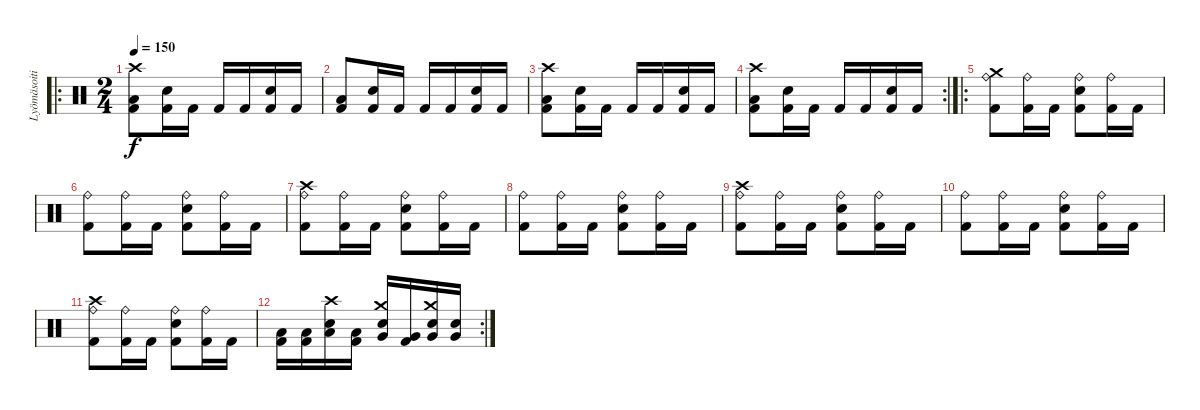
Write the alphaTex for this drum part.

\track ("Lyömäsoitin" "Lyömäsoiti") {instrument percussion}
\staff {score}
\articulation defaults
\ro
\ts (2 4)
\tempo 150
\clef neutral
\ks c
("Crash high (hit)" "Low Tom (hit)" "Kick (hit) 2").8{dy f} ("Electric Snare (hit)" "Kick (hit) 2").16 "Kick (hit) 2".16 "Kick (hit) 2".16 "Kick (hit) 2".16 ("Electric Snare (hit)" "Kick (hit) 2").16 "Kick (hit) 2".16 |
("Low Tom (hit)" "Kick (hit) 2").8 ("Electric Snare (hit)" "Kick (hit) 2").16 "Kick (hit) 2".16 "Kick (hit) 2".16 "Kick (hit) 2".16 ("Electric Snare (hit)" "Kick (hit) 2").16 "Kick (hit) 2".16 |
("Crash high (hit)" "Low Tom (hit)" "Kick (hit) 2").8 ("Electric Snare (hit)" "Kick (hit) 2").16 "Kick (hit) 2".16 "Kick (hit) 2".16 "Kick (hit) 2".16 ("Electric Snare (hit)" "Kick (hit) 2").16 "Kick (hit) 2".16 |
\rc 2
("Crash high (hit)" "Low Tom (hit)" "Kick (hit) 2").8 ("Electric Snare (hit)" "Kick (hit) 2").16 "Kick (hit) 2".16 "Kick (hit) 2".16 "Kick (hit) 2".16 ("Electric Snare (hit)" "Kick (hit) 2").16 "Kick (hit) 2".16 |
\ro
("Crash medium (hit)" "Ride (bell)" "Kick (hit) 2").8 ("Ride (bell)" "Kick (hit) 2").16 "Kick (hit) 2".16 ("Ride (bell)" "Electric Snare (hit)" "Kick (hit) 2").8 ("Ride (bell)" "Kick (hit) 2").16 "Kick (hit) 2".16 |
("Ride (bell)" "Kick (hit) 2").8 ("Ride (bell)" "Kick (hit) 2").16 "Kick (hit) 2".16 ("Ride (bell)" "Electric Snare (hit)" "Kick (hit) 2").8 ("Ride (bell)" "Kick (hit) 2").16 "Kick (hit) 2".16 |
("Crash high (hit)" "Ride (bell)" "Kick (hit) 2").8 ("Ride (bell)" "Kick (hit) 2").16 "Kick (hit) 2".16 ("Ride (bell)" "Electric Snare (hit)" "Kick (hit) 2").8 ("Ride (bell)" "Kick (hit) 2").16 "Kick (hit) 2".16 |
("Ride (bell)" "Kick (hit) 2").8 ("Ride (bell)" "Kick (hit) 2").16 "Kick (hit) 2".16 ("Ride (bell)" "Electric Snare (hit)" "Kick (hit) 2").8 ("Ride (bell)" "Kick (hit) 2").16 "Kick (hit) 2".16 |
("Crash high (hit)" "Ride (bell)" "Kick (hit) 2").8 ("Ride (bell)" "Kick (hit) 2").16 "Kick (hit) 2".16 ("Ride (bell)" "Electric Snare (hit)" "Kick (hit) 2").8 ("Ride (bell)" "Kick (hit) 2").16 "Kick (hit) 2".16 |
("Ride (bell)" "Kick (hit) 2").8 ("Ride (bell)" "Kick (hit) 2").16 "Kick (hit) 2".16 ("Ride (bell)" "Electric Snare (hit)" "Kick (hit) 2").8 ("Ride (bell)" "Kick (hit) 2").16 "Kick (hit) 2".16 |
("Crash high (hit)" "Ride (bell)" "Kick (hit) 2").8 ("Ride (bell)" "Kick (hit) 2").16 "Kick (hit) 2".16 ("Ride (bell)" "Electric Snare (hit)" "Kick (hit) 2").8 ("Ride (bell)" "Kick (hit) 2").16 "Kick (hit) 2".16 |
\rc 2
("Low Tom (hit)" "Kick (hit) 2").16 ("Low Tom (hit)" "Kick (hit) 2").16 ("Crash high (hit)" "Low Tom (hit)" "Electric Snare (hit)").16 ("Low Tom (hit)" "Kick (hit) 2").16 ("Crash medium (hit)" "Very Low Tom (hit)" "Electric Snare (hit)").16 ("Very Low Tom (hit)" "Kick (hit) 2").16 ("Crash medium (hit)" "Very Low Tom (hit)" "Electric Snare (hit)").16 ("Very Low Tom (hit)" "Electric Snare (hit)").16
